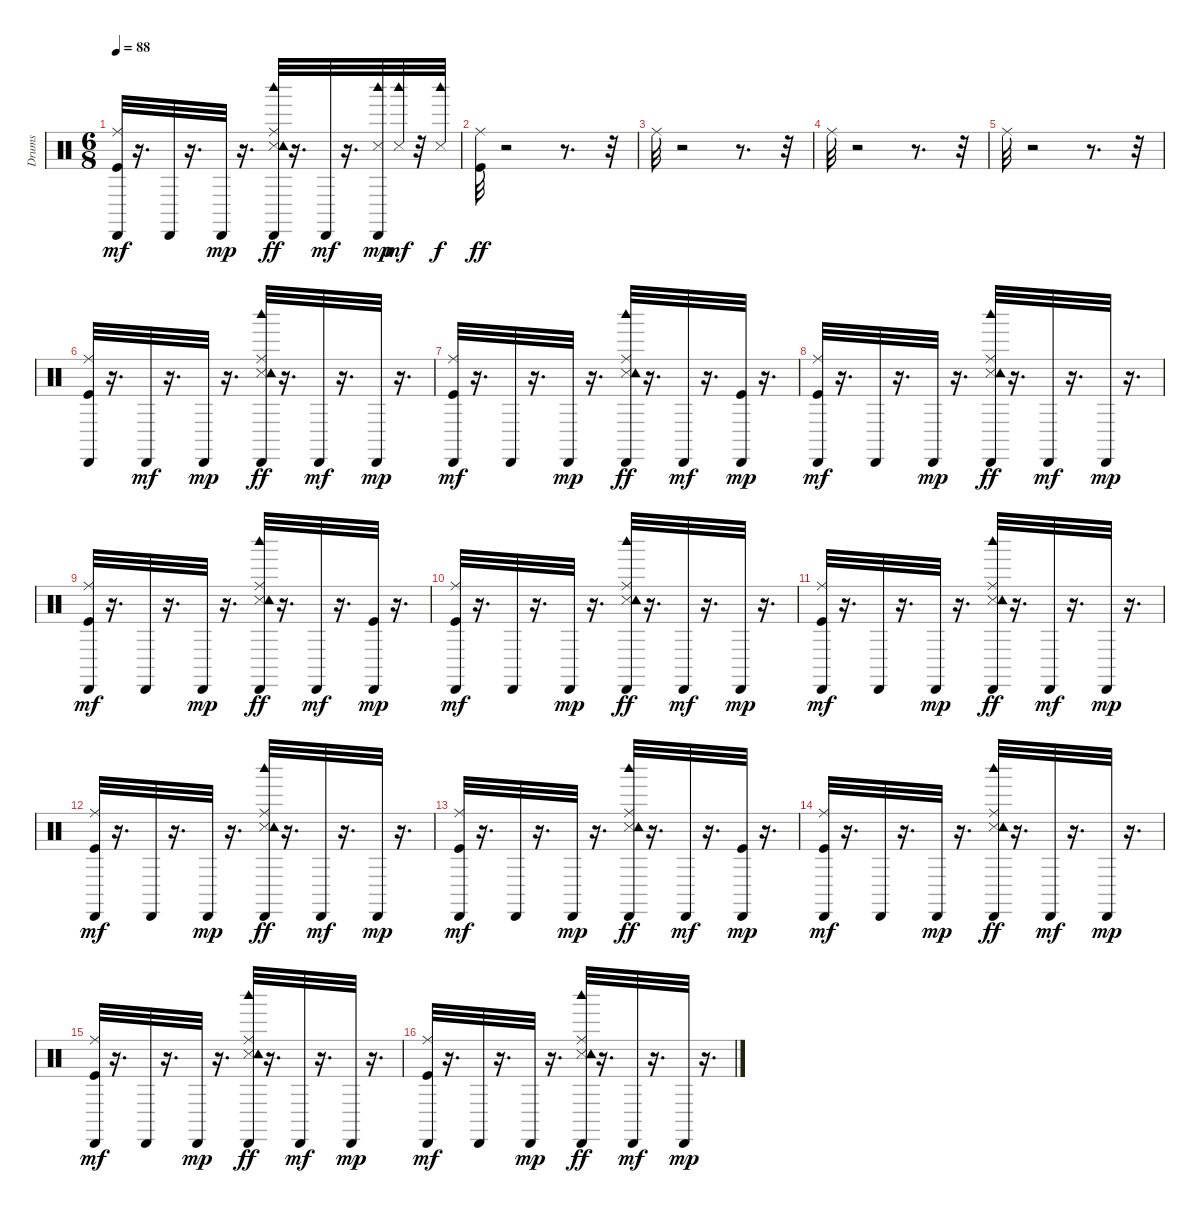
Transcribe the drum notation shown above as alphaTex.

\track ("Drums               " "Drums     ") {instrument percussion}
\staff {score}
\articulation defaults
\ts (6 8)
\tempo 88
\clef neutral
\ks c
("Kick (hit)" "Ride (middle)" "Cabasa (hit)").32{dy mf} r.16{d} "Cabasa (hit)".32 r.16{d} "Cabasa (hit)".32{dy mp} r.16{d} ("Snare (side stick) 3" "Ride (middle)" "Tambourine (hit)" "Cabasa (hit)" "Woodblock high (hit)").32{dy ff} r.16{d} "Cabasa (hit)".32{dy mf} r.16{d} ("Snare (side stick) 3" "Cabasa (hit)" "Woodblock high (hit)").32{dy mp} ("Snare (side stick) 3" "Woodblock high (hit)").32{dy mf} r.32 ("Snare (side stick) 3" "Woodblock high (hit)").32{dy f} |
("Kick (hit)" "Ride (middle)").32{dy ff} r.2 r.8{d} r.32 |
"Ride (middle)".32 r.2 r.8{d} r.32 |
"Ride (middle)".32 r.2 r.8{d} r.32 |
"Ride (middle)".32 r.2 r.8{d} r.32 |
("Kick (hit)" "Ride (middle)" "Cabasa (hit)").32 r.16{d} "Cabasa (hit)".32{dy mf} r.16{d} "Cabasa (hit)".32{dy mp} r.16{d} ("Snare (side stick) 3" "Ride (middle)" "Tambourine (hit)" "Cabasa (hit)" "Woodblock high (hit)").32{dy ff} r.16{d} "Cabasa (hit)".32{dy mf} r.16{d} "Cabasa (hit)".32{dy mp} r.16{d} |
("Kick (hit)" "Ride (middle)" "Cabasa (hit)").32{dy mf} r.16{d} "Cabasa (hit)".32 r.16{d} "Cabasa (hit)".32{dy mp} r.16{d} ("Snare (side stick) 3" "Ride (middle)" "Tambourine (hit)" "Cabasa (hit)" "Woodblock high (hit)").32{dy ff} r.16{d} "Cabasa (hit)".32{dy mf} r.16{d} ("Kick (hit)" "Cabasa (hit)").32{dy mp} r.16{d} |
("Kick (hit)" "Ride (middle)" "Cabasa (hit)").32{dy mf} r.16{d} "Cabasa (hit)".32 r.16{d} "Cabasa (hit)".32{dy mp} r.16{d} ("Snare (side stick) 3" "Ride (middle)" "Tambourine (hit)" "Cabasa (hit)" "Woodblock high (hit)").32{dy ff} r.16{d} "Cabasa (hit)".32{dy mf} r.16{d} "Cabasa (hit)".32{dy mp} r.16{d} |
("Kick (hit)" "Ride (middle)" "Cabasa (hit)").32{dy mf} r.16{d} "Cabasa (hit)".32 r.16{d} "Cabasa (hit)".32{dy mp} r.16{d} ("Snare (side stick) 3" "Ride (middle)" "Tambourine (hit)" "Cabasa (hit)" "Woodblock high (hit)").32{dy ff} r.16{d} "Cabasa (hit)".32{dy mf} r.16{d} ("Kick (hit)" "Cabasa (hit)").32{dy mp} r.16{d} |
("Kick (hit)" "Ride (middle)" "Cabasa (hit)").32{dy mf} r.16{d} "Cabasa (hit)".32 r.16{d} "Cabasa (hit)".32{dy mp} r.16{d} ("Snare (side stick) 3" "Ride (middle)" "Tambourine (hit)" "Cabasa (hit)" "Woodblock high (hit)").32{dy ff} r.16{d} "Cabasa (hit)".32{dy mf} r.16{d} "Cabasa (hit)".32{dy mp} r.16{d} |
("Kick (hit)" "Ride (middle)" "Cabasa (hit)").32{dy mf} r.16{d} "Cabasa (hit)".32 r.16{d} "Cabasa (hit)".32{dy mp} r.16{d} ("Snare (side stick) 3" "Ride (middle)" "Tambourine (hit)" "Cabasa (hit)" "Woodblock high (hit)").32{dy ff} r.16{d} "Cabasa (hit)".32{dy mf} r.16{d} "Cabasa (hit)".32{dy mp} r.16{d} |
("Kick (hit)" "Ride (middle)" "Cabasa (hit)").32{dy mf} r.16{d} "Cabasa (hit)".32 r.16{d} "Cabasa (hit)".32{dy mp} r.16{d} ("Snare (side stick) 3" "Ride (middle)" "Tambourine (hit)" "Cabasa (hit)" "Woodblock high (hit)").32{dy ff} r.16{d} "Cabasa (hit)".32{dy mf} r.16{d} "Cabasa (hit)".32{dy mp} r.16{d} |
("Kick (hit)" "Ride (middle)" "Cabasa (hit)").32{dy mf} r.16{d} "Cabasa (hit)".32 r.16{d} "Cabasa (hit)".32{dy mp} r.16{d} ("Snare (side stick) 3" "Ride (middle)" "Tambourine (hit)" "Cabasa (hit)" "Woodblock high (hit)").32{dy ff} r.16{d} "Cabasa (hit)".32{dy mf} r.16{d} ("Kick (hit)" "Cabasa (hit)").32{dy mp} r.16{d} |
("Kick (hit)" "Ride (middle)" "Cabasa (hit)").32{dy mf} r.16{d} "Cabasa (hit)".32 r.16{d} "Cabasa (hit)".32{dy mp} r.16{d} ("Snare (side stick) 3" "Ride (middle)" "Tambourine (hit)" "Cabasa (hit)" "Woodblock high (hit)").32{dy ff} r.16{d} "Cabasa (hit)".32{dy mf} r.16{d} "Cabasa (hit)".32{dy mp} r.16{d} |
("Kick (hit)" "Ride (middle)" "Cabasa (hit)").32{dy mf} r.16{d} "Cabasa (hit)".32 r.16{d} "Cabasa (hit)".32{dy mp} r.16{d} ("Snare (side stick) 3" "Ride (middle)" "Tambourine (hit)" "Cabasa (hit)" "Woodblock high (hit)").32{dy ff} r.16{d} "Cabasa (hit)".32{dy mf} r.16{d} "Cabasa (hit)".32{dy mp} r.16{d} |
("Kick (hit)" "Ride (middle)" "Cabasa (hit)").32{dy mf} r.16{d} "Cabasa (hit)".32 r.16{d} "Cabasa (hit)".32{dy mp} r.16{d} ("Snare (side stick) 3" "Ride (middle)" "Tambourine (hit)" "Cabasa (hit)" "Woodblock high (hit)").32{dy ff} r.16{d} "Cabasa (hit)".32{dy mf} r.16{d} "Cabasa (hit)".32{dy mp} r.16{d}
